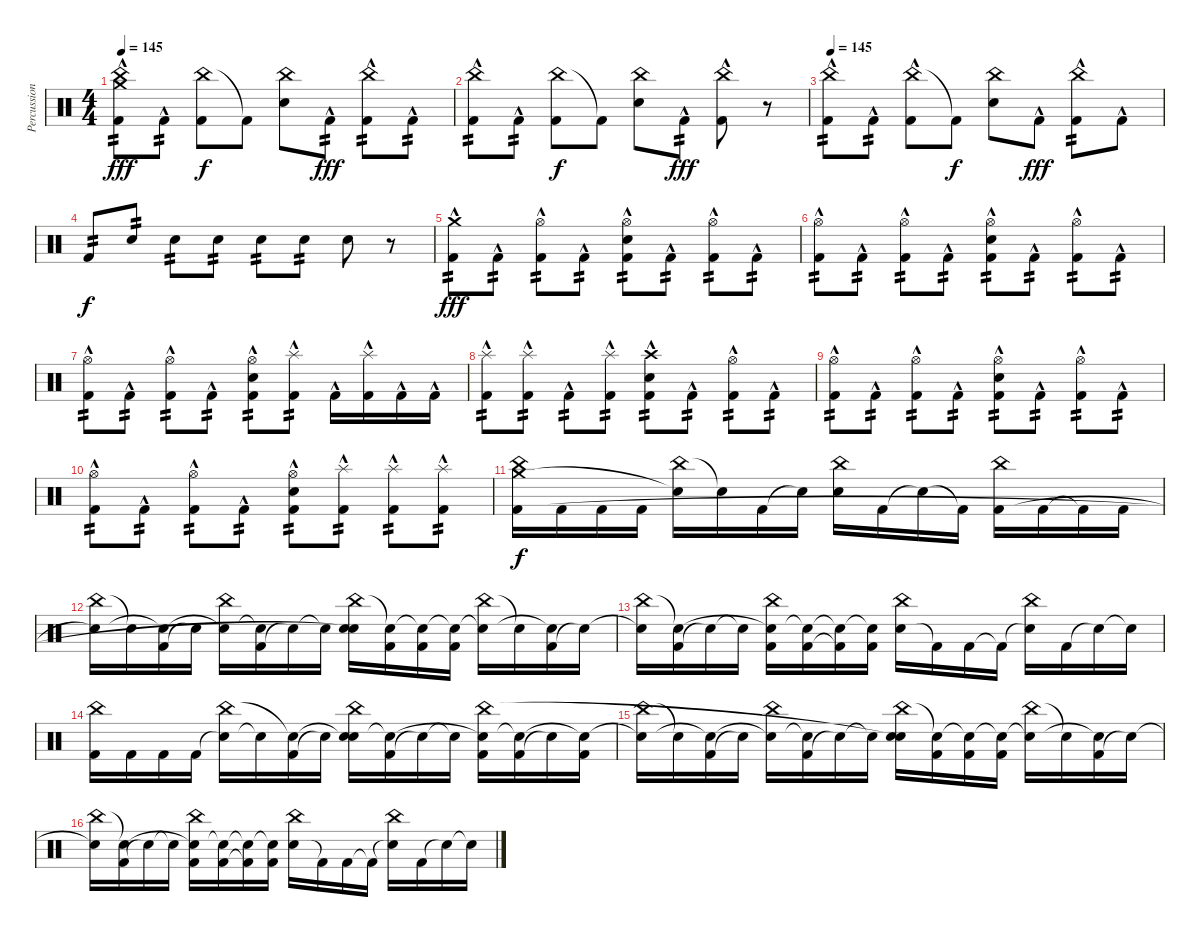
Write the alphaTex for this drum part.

\track ("Percussion" "Percussion") {instrument percussion}
\staff {score}
\articulation defaults
\ts (4 4)
\tempo 145
\clef neutral
\ks c
("China (hit)" "Crash medium (hit)" "Kick (hit) 2"{hac}).8{tp 2 dy fff} "Kick (hit) 2"{hac}.8{tp 2} ("China (hit)" "Kick (hit) 2").8{dy f} "Kick (hit) 2"{t}.8 ("China (hit)" "Snare (hit) 2").8 "Kick (hit) 2"{hac}.8{tp 2 dy fff} ("China (hit)" "Kick (hit) 2"{hac}).8{tp 2} "Kick (hit) 2"{hac}.8{tp 2} |
("China (hit)" "Kick (hit) 2"{hac}).8{tp 2} "Kick (hit) 2"{hac}.8{tp 2} ("China (hit)" "Kick (hit) 2").8{dy f} "Kick (hit) 2"{t}.8 ("China (hit)" "Snare (hit) 2").8 "Kick (hit) 2"{hac}.8{tp 2 dy fff} ("China (hit)" "Kick (hit) 2"{hac}).8 r.8 |
\tempo 145
("China (hit)" "Kick (hit) 2"{hac}).8{tp 2} "Kick (hit) 2"{hac}.8{tp 2} ("China (hit)" "Kick (hit) 2"{hac}).8 "Kick (hit) 2"{t}.8{dy f} ("China (hit)" "Snare (hit) 2").8 "Kick (hit) 2"{hac}.8{dy fff} ("China (hit)" "Kick (hit) 2"{hac}).8{tp 2} "Kick (hit) 2"{hac}.8 |
"Kick (hit) 2".8{tp 2 dy f} "Snare (hit) 2".8{tp 2} "Snare (hit) 2".8{tp 2} "Snare (hit) 2".8{tp 2} "Snare (hit) 2".8{tp 2} "Snare (hit) 2".8{tp 2} "Snare (hit) 2".8 r.8 |
("Crash medium (hit)" "Kick (hit) 2"{hac}).8{tp 2 dy fff} "Kick (hit) 2"{hac}.8{tp 2} ("Hi-Hat (open)" "Kick (hit) 2"{hac}).8{tp 2} "Kick (hit) 2"{hac}.8{tp 2} ("Hi-Hat (open)" "Snare (hit) 2" "Kick (hit) 2"{hac}).8{tp 2} "Kick (hit) 2"{hac}.8{tp 2} ("Hi-Hat (open)" "Kick (hit) 2"{hac}).8{tp 2} "Kick (hit) 2"{hac}.8{tp 2} |
("Hi-Hat (open)" "Kick (hit) 2"{hac}).8{tp 2} "Kick (hit) 2"{hac}.8{tp 2} ("Hi-Hat (open)" "Kick (hit) 2"{hac}).8{tp 2} "Kick (hit) 2"{hac}.8{tp 2} ("Hi-Hat (open)" "Snare (hit) 2" "Kick (hit) 2"{hac}).8{tp 2} "Kick (hit) 2"{hac}.8{tp 2} ("Hi-Hat (open)" "Kick (hit) 2"{hac}).8{tp 2} "Kick (hit) 2"{hac}.8{tp 2} |
("Hi-Hat (open)" "Kick (hit) 2"{hac}).8{tp 2} "Kick (hit) 2"{hac}.8{tp 2} ("Hi-Hat (open)" "Kick (hit) 2"{hac}).8{tp 2} "Kick (hit) 2"{hac}.8{tp 2} ("Hi-Hat (open)" "Snare (hit) 2" "Kick (hit) 2"{hac}).8{tp 2} ("Splash (hit)"{hac} "Kick (hit) 2"{hac}).8{tp 2} "Kick (hit) 2"{hac}.16 ("Splash (hit)"{hac} "Kick (hit) 2"{hac}).16 "Kick (hit) 2"{hac}.16 "Kick (hit) 2"{hac}.16 |
("Splash (hit)"{hac} "Kick (hit) 2"{hac}).8{tp 2} ("Splash (hit)"{hac} "Kick (hit) 2"{hac}).8{tp 2} "Kick (hit) 2"{hac}.8{tp 2} ("Splash (hit)"{hac} "Kick (hit) 2"{hac}).8{tp 2} ("Crash high (hit)" "Snare (hit) 2" "Kick (hit) 2"{hac}).8{tp 2} "Kick (hit) 2"{hac}.8{tp 2} ("Hi-Hat (open)" "Kick (hit) 2"{hac}).8{tp 2} "Kick (hit) 2"{hac}.8{tp 2} |
("Hi-Hat (open)" "Kick (hit) 2"{hac}).8{tp 2} "Kick (hit) 2"{hac}.8{tp 2} ("Hi-Hat (open)" "Kick (hit) 2"{hac}).8{tp 2} "Kick (hit) 2"{hac}.8{tp 2} ("Hi-Hat (open)" "Snare (hit) 2" "Kick (hit) 2"{hac}).8{tp 2} "Kick (hit) 2"{hac}.8{tp 2} ("Hi-Hat (open)" "Kick (hit) 2"{hac}).8{tp 2} "Kick (hit) 2"{hac}.8{tp 2} |
("Hi-Hat (open)" "Kick (hit) 2"{hac}).8{tp 2} "Kick (hit) 2"{hac}.8{tp 2} ("Hi-Hat (open)" "Kick (hit) 2"{hac}).8{tp 2} "Kick (hit) 2"{hac}.8{tp 2} ("Hi-Hat (open)" "Snare (hit) 2" "Kick (hit) 2"{hac}).8{tp 2} ("Splash (hit)"{hac} "Kick (hit) 2"{hac}).8{tp 2} ("Splash (hit)"{hac} "Kick (hit) 2"{hac}).8{tp 2} ("Splash (hit)"{hac} "Kick (hit) 2"{hac}).8{tp 2} |
("China (hit)" "Crash medium (hit)" "Kick (hit) 2").16{dy f} "Kick (hit) 2".16 "Kick (hit) 2".16 "Kick (hit) 2".16 ("China (hit)" "Snare (hit)"{t}).16 "Snare (hit)"{t}.16 "Kick (hit) 2".16 "Snare (hit)"{t}.16 ("China (hit)" "Snare (hit) 2").16 "Kick (hit) 2".16 "Snare (hit)"{t}.16 "Kick (hit) 2"{t}.16 ("China (hit)" "Kick (hit) 2").16 "Kick (hit) 2".16 "Kick (hit) 2"{t}.16 "Kick (hit) 2".16 |
("China (hit)" "Snare (hit)"{t}).16 "Snare (hit)"{t}.16 ("Kick (hit) 2" "Snare (hit)"{t}).16 "Snare (hit)"{t}.16 ("China (hit)" "Snare (hit)"{t}).16 ("Kick (hit) 2" "Snare (hit)"{t}).16 "Snare (hit)"{t}.16 "Snare (hit)"{t}.16 ("Snare (hit) 2" "China (hit)" "Snare (hit)"{t}).16 ("Kick (hit) 2" "Snare (hit)"{t}).16 ("Kick (hit) 2" "Snare (hit)"{t}).16 ("Kick (hit) 2" "Snare (hit)"{t}).16 ("China (hit)" "Snare (hit)"{t}).16 "Snare (hit)"{t}.16 ("Kick (hit) 2" "Snare (hit)"{t}).16 "Snare (hit)"{t}.16 |
("Snare (hit)"{t} "China (hit)").16 ("Kick (hit) 2" "Snare (hit)"{t}).16 "Snare (hit)"{t}.16 "Snare (hit)"{t}.16 ("Kick (hit) 2" "Snare (hit)"{t} "China (hit)").16 ("Kick (hit) 2" "Snare (hit)"{t}).16 ("Kick (hit) 2"{t} "Snare (hit)"{t}).16 ("Kick (hit) 2" "Snare (hit)"{t}).16 ("Snare (hit) 2" "China (hit)").16 "Kick (hit) 2"{t}.16 "Kick (hit) 2".16 "Kick (hit) 2"{t}.16 ("Snare (hit)"{t} "China (hit)").16 "Kick (hit) 2".16 "Snare (hit)"{t}.16 "Snare (hit)"{t}.16 |
("Kick (hit) 2" "China (hit)").16 "Kick (hit) 2".16 "Kick (hit) 2".16 "Kick (hit) 2".16 ("Snare (hit)"{t} "China (hit)").16 "Snare (hit)"{t}.16 ("Kick (hit) 2" "Snare (hit)"{t}).16 "Snare (hit)"{t}.16 ("Snare (hit) 2" "Snare (hit)"{t} "China (hit)").16 ("Kick (hit) 2" "Snare (hit)"{t}).16 "Snare (hit)"{t}.16 "Snare (hit)"{t}.16 ("Kick (hit) 2" "Snare (hit)"{t} "China (hit)").16 ("Kick (hit) 2" "Snare (hit)"{t}).16 "Snare (hit)"{t}.16 ("Kick (hit) 2" "Snare (hit)"{t}).16 |
("China (hit)" "Snare (hit)"{t}).16 "Snare (hit)"{t}.16 ("Kick (hit) 2" "Snare (hit)"{t}).16 "Snare (hit)"{t}.16 ("China (hit)" "Snare (hit)"{t}).16 ("Kick (hit) 2" "Snare (hit)"{t}).16 "Snare (hit)"{t}.16 "Snare (hit)"{t}.16 ("Snare (hit) 2" "China (hit)" "Snare (hit)"{t}).16 ("Kick (hit) 2" "Snare (hit)"{t}).16 ("Kick (hit) 2" "Snare (hit)"{t}).16 ("Kick (hit) 2" "Snare (hit)"{t}).16 ("China (hit)" "Snare (hit)"{t}).16 "Snare (hit)"{t}.16 ("Kick (hit) 2" "Snare (hit)"{t}).16 "Snare (hit)"{t}.16 |
("Snare (hit)"{t} "China (hit)").16 ("Kick (hit) 2" "Snare (hit)"{t}).16 "Snare (hit)"{t}.16 "Snare (hit)"{t}.16 ("Kick (hit) 2" "Snare (hit)"{t} "China (hit)").16 ("Kick (hit) 2" "Snare (hit)"{t}).16 ("Kick (hit) 2"{t} "Snare (hit)"{t}).16 ("Kick (hit) 2" "Snare (hit)"{t}).16 ("Snare (hit) 2" "China (hit)").16 "Kick (hit) 2"{t}.16 "Kick (hit) 2".16 "Kick (hit) 2"{t}.16 ("Snare (hit)"{t} "China (hit)").16 "Kick (hit) 2".16 "Snare (hit)"{t}.16 "Snare (hit)"{t}.16
